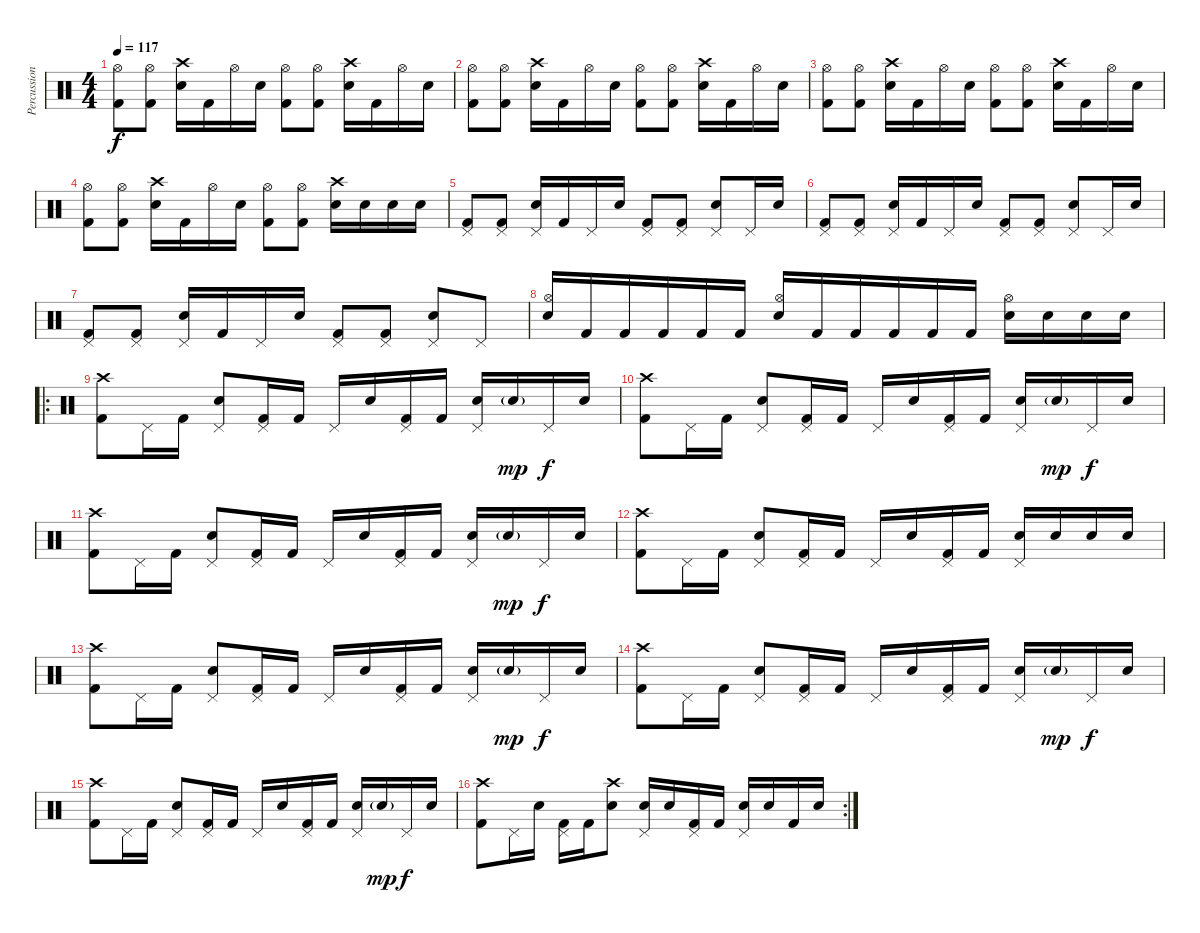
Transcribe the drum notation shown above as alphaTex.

\track ("Percussion" "Percussion") {instrument percussion}
\staff {score}
\articulation defaults
\ts (4 4)
\tempo 117
\clef neutral
\ks c
("Hi-Hat (open)" "Kick (hit) 2").8{dy f} ("Hi-Hat (open)" "Kick (hit) 2").8 ("Crash high (hit)" "Snare (hit) 2").16 "Kick (hit) 2".16 "Hi-Hat (open)".16 "Snare (hit) 2".16 ("Hi-Hat (open)" "Kick (hit) 2").8 ("Hi-Hat (open)" "Kick (hit) 2").8 ("Crash high (hit)" "Snare (hit) 2").16 "Kick (hit) 2".16 "Hi-Hat (open)".16 "Snare (hit) 2".16 |
("Hi-Hat (open)" "Kick (hit) 2").8 ("Hi-Hat (open)" "Kick (hit) 2").8 ("Crash high (hit)" "Snare (hit) 2").16 "Kick (hit) 2".16 "Hi-Hat (open)".16 "Snare (hit) 2".16 ("Hi-Hat (open)" "Kick (hit) 2").8 ("Hi-Hat (open)" "Kick (hit) 2").8 ("Crash high (hit)" "Snare (hit) 2").16 "Kick (hit) 2".16 "Hi-Hat (open)".16 "Snare (hit) 2".16 |
("Hi-Hat (open)" "Kick (hit) 2").8 ("Hi-Hat (open)" "Kick (hit) 2").8 ("Crash high (hit)" "Snare (hit) 2").16 "Kick (hit) 2".16 "Hi-Hat (open)".16 "Snare (hit) 2".16 ("Hi-Hat (open)" "Kick (hit) 2").8 ("Hi-Hat (open)" "Kick (hit) 2").8 ("Crash high (hit)" "Snare (hit) 2").16 "Kick (hit) 2".16 "Hi-Hat (open)".16 "Snare (hit) 2".16 |
("Hi-Hat (open)" "Kick (hit) 2").8 ("Hi-Hat (open)" "Kick (hit) 2").8 ("Crash high (hit)" "Snare (hit) 2").16 "Kick (hit) 2".16 "Hi-Hat (open)".16 "Snare (hit) 2".16 ("Hi-Hat (open)" "Kick (hit) 2").8 ("Hi-Hat (open)" "Kick (hit) 2").8 ("Crash high (hit)" "Snare (hit) 2").16 "Snare (hit) 2".16 "Snare (hit) 2".16 "Snare (hit) 2".16 |
("Pedal Hi-Hat (hit)" "Kick (hit) 2").8{volume 5} ("Pedal Hi-Hat (hit)" "Kick (hit) 2").8 ("Pedal Hi-Hat (hit)" "Snare (hit) 2").16 "Kick (hit) 2".16 "Pedal Hi-Hat (hit)".16 "Snare (hit) 2".16 ("Pedal Hi-Hat (hit)" "Kick (hit) 2").8 ("Pedal Hi-Hat (hit)" "Kick (hit) 2").8 ("Pedal Hi-Hat (hit)" "Snare (hit) 2").8 "Pedal Hi-Hat (hit)".16 "Snare (hit) 2".16 |
("Pedal Hi-Hat (hit)" "Kick (hit) 2").8 ("Pedal Hi-Hat (hit)" "Kick (hit) 2").8 ("Pedal Hi-Hat (hit)" "Snare (hit) 2").16 "Kick (hit) 2".16 "Pedal Hi-Hat (hit)".16 "Snare (hit) 2".16 ("Pedal Hi-Hat (hit)" "Kick (hit) 2").8 ("Pedal Hi-Hat (hit)" "Kick (hit) 2").8 ("Pedal Hi-Hat (hit)" "Snare (hit) 2").8 "Pedal Hi-Hat (hit)".16 "Snare (hit) 2".16 |
("Pedal Hi-Hat (hit)" "Kick (hit) 2").8 ("Pedal Hi-Hat (hit)" "Kick (hit) 2").8 ("Pedal Hi-Hat (hit)" "Snare (hit) 2").16 "Kick (hit) 2".16 "Pedal Hi-Hat (hit)".16 "Snare (hit) 2".16 ("Pedal Hi-Hat (hit)" "Kick (hit) 2").8 ("Pedal Hi-Hat (hit)" "Kick (hit) 2").8 ("Pedal Hi-Hat (hit)" "Snare (hit) 2").8 "Pedal Hi-Hat (hit)".8 |
("Hi-Hat (open)" "Snare (hit) 2").16{volume 13 beam Up} "Kick (hit) 2".16{beam Up beam merge} "Kick (hit) 2".16{beam Up beam merge} "Kick (hit) 2".16{beam Up beam merge} "Kick (hit) 2".16{beam Up beam merge} "Kick (hit) 2".16{beam Up beam split} ("Hi-Hat (open)" "Snare (hit) 2").16{beam Up} "Kick (hit) 2".16{beam Up beam merge} "Kick (hit) 2".16 "Kick (hit) 2".16 "Kick (hit) 2".16 "Kick (hit) 2".16 ("Hi-Hat (open)" "Snare (hit) 2").16 "Snare (hit) 2".16 "Snare (hit) 2".16 "Snare (hit) 2".16 |
\ro
("Crash high (hit)" "Kick (hit) 2").8 "Pedal Hi-Hat (hit)".16 "Kick (hit) 2".16 ("Pedal Hi-Hat (hit)" "Snare (hit) 2").8 ("Pedal Hi-Hat (hit)" "Kick (hit) 2").16 "Kick (hit) 2".16 "Pedal Hi-Hat (hit)".16 "Snare (hit) 2".16 ("Pedal Hi-Hat (hit)" "Kick (hit) 2").16 "Kick (hit) 2".16 ("Pedal Hi-Hat (hit)" "Snare (hit) 2").16 "Snare (hit) 2"{g}.16{dy mp} "Pedal Hi-Hat (hit)".16{dy f} "Snare (hit) 2".16 |
("Crash high (hit)" "Kick (hit) 2").8 "Pedal Hi-Hat (hit)".16 "Kick (hit) 2".16 ("Pedal Hi-Hat (hit)" "Snare (hit) 2").8 ("Pedal Hi-Hat (hit)" "Kick (hit) 2").16 "Kick (hit) 2".16 "Pedal Hi-Hat (hit)".16 "Snare (hit) 2".16 ("Pedal Hi-Hat (hit)" "Kick (hit) 2").16 "Kick (hit) 2".16 ("Pedal Hi-Hat (hit)" "Snare (hit) 2").16 "Snare (hit) 2"{g}.16{dy mp} "Pedal Hi-Hat (hit)".16{dy f} "Snare (hit) 2".16 |
("Crash high (hit)" "Kick (hit) 2").8 "Pedal Hi-Hat (hit)".16 "Kick (hit) 2".16 ("Pedal Hi-Hat (hit)" "Snare (hit) 2").8 ("Pedal Hi-Hat (hit)" "Kick (hit) 2").16 "Kick (hit) 2".16 "Pedal Hi-Hat (hit)".16 "Snare (hit) 2".16 ("Pedal Hi-Hat (hit)" "Kick (hit) 2").16 "Kick (hit) 2".16 ("Pedal Hi-Hat (hit)" "Snare (hit) 2").16 "Snare (hit) 2"{g}.16{dy mp} "Pedal Hi-Hat (hit)".16{dy f} "Snare (hit) 2".16 |
("Crash high (hit)" "Kick (hit) 2").8 "Pedal Hi-Hat (hit)".16 "Kick (hit) 2".16 ("Pedal Hi-Hat (hit)" "Snare (hit) 2").8 ("Pedal Hi-Hat (hit)" "Kick (hit) 2").16 "Kick (hit) 2".16 "Pedal Hi-Hat (hit)".16 "Snare (hit) 2".16 ("Pedal Hi-Hat (hit)" "Kick (hit) 2").16 "Kick (hit) 2".16 ("Pedal Hi-Hat (hit)" "Snare (hit) 2").16 "Snare (hit) 2".16 "Snare (hit) 2".16 "Snare (hit) 2".16 |
("Crash high (hit)" "Kick (hit) 2").8 "Pedal Hi-Hat (hit)".16 "Kick (hit) 2".16 ("Pedal Hi-Hat (hit)" "Snare (hit) 2").8 ("Pedal Hi-Hat (hit)" "Kick (hit) 2").16 "Kick (hit) 2".16 "Pedal Hi-Hat (hit)".16 "Snare (hit) 2".16 ("Pedal Hi-Hat (hit)" "Kick (hit) 2").16 "Kick (hit) 2".16 ("Pedal Hi-Hat (hit)" "Snare (hit) 2").16 "Snare (hit) 2"{g}.16{dy mp} "Pedal Hi-Hat (hit)".16{dy f} "Snare (hit) 2".16 |
("Crash high (hit)" "Kick (hit) 2").8 "Pedal Hi-Hat (hit)".16 "Kick (hit) 2".16 ("Pedal Hi-Hat (hit)" "Snare (hit) 2").8 ("Pedal Hi-Hat (hit)" "Kick (hit) 2").16 "Kick (hit) 2".16 "Pedal Hi-Hat (hit)".16 "Snare (hit) 2".16 ("Pedal Hi-Hat (hit)" "Kick (hit) 2").16 "Kick (hit) 2".16 ("Pedal Hi-Hat (hit)" "Snare (hit) 2").16 "Snare (hit) 2"{g}.16{dy mp} "Pedal Hi-Hat (hit)".16{dy f} "Snare (hit) 2".16 |
("Crash high (hit)" "Kick (hit) 2").8 "Pedal Hi-Hat (hit)".16 "Kick (hit) 2".16 ("Pedal Hi-Hat (hit)" "Snare (hit) 2").8 ("Pedal Hi-Hat (hit)" "Kick (hit) 2").16 "Kick (hit) 2".16 "Pedal Hi-Hat (hit)".16 "Snare (hit) 2".16 ("Pedal Hi-Hat (hit)" "Kick (hit) 2").16 "Kick (hit) 2".16 ("Pedal Hi-Hat (hit)" "Snare (hit) 2").16 "Snare (hit) 2"{g}.16{dy mp} "Pedal Hi-Hat (hit)".16{dy f} "Snare (hit) 2".16 |
\rc 2
("Crash high (hit)" "Kick (hit) 2").8 "Pedal Hi-Hat (hit)".16 "Snare (hit) 2".16 ("Pedal Hi-Hat (hit)" "Kick (hit) 2").16 "Kick (hit) 2".16 ("Crash high (hit)" "Snare (hit) 2").8 ("Pedal Hi-Hat (hit)" "Snare (hit) 2").16 "Snare (hit) 2".16 ("Pedal Hi-Hat (hit)" "Kick (hit) 2").16 "Kick (hit) 2".16 ("Pedal Hi-Hat (hit)" "Snare (hit) 2").16 "Snare (hit) 2".16 "Kick (hit) 2".16 "Snare (hit) 2".16
